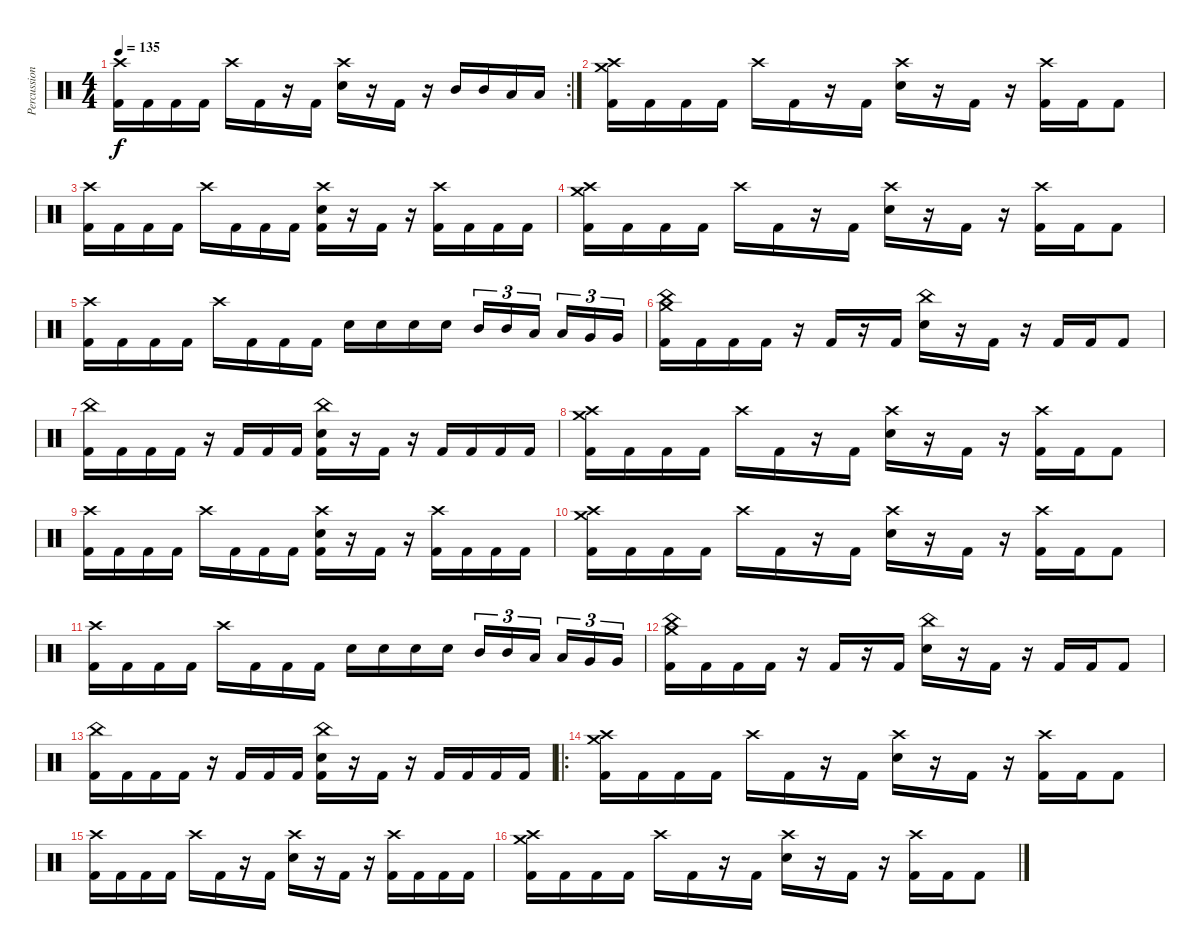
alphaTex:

\track ("Percussion" "Percussion") {instrument percussion}
\staff {score}
\articulation defaults
\rc 2
\ts (4 4)
\tempo 135
\clef neutral
\ks c
("Crash high (hit)" "Kick (hit) 2").16{dy f} "Kick (hit) 2".16 "Kick (hit) 2".16 "Kick (hit) 2".16 "Crash high (hit)".16 "Kick (hit) 2".16 r.16 "Kick (hit) 2".16 ("Crash high (hit)" "Snare (hit) 2").16 r.16 "Kick (hit) 2".16 r.16 "Mid Tom (hit)".16 "Mid Tom (hit)".16 "Low Tom (hit)".16 "Low Tom (hit)".16 |
("Crash high (hit)" "Crash medium (hit)" "Kick (hit) 2").16 "Kick (hit) 2".16 "Kick (hit) 2".16 "Kick (hit) 2".16 "Crash high (hit)".16 "Kick (hit) 2".16 r.16 "Kick (hit) 2".16 ("Crash high (hit)" "Snare (hit) 2").16 r.16 "Kick (hit) 2".16 r.16 ("Crash high (hit)" "Kick (hit) 2").16 "Kick (hit) 2".16 "Kick (hit) 2".8 |
("Crash high (hit)" "Kick (hit) 2").16 "Kick (hit) 2".16 "Kick (hit) 2".16 "Kick (hit) 2".16 "Crash high (hit)".16 "Kick (hit) 2".16 "Kick (hit) 2".16 "Kick (hit) 2".16 ("Crash high (hit)" "Snare (hit) 2" "Kick (hit) 2").16 r.16 "Kick (hit) 2".16 r.16 ("Crash high (hit)" "Kick (hit) 2").16 "Kick (hit) 2".16 "Kick (hit) 2".16 "Kick (hit) 2".16 |
("Crash high (hit)" "Crash medium (hit)" "Kick (hit) 2").16 "Kick (hit) 2".16 "Kick (hit) 2".16 "Kick (hit) 2".16 "Crash high (hit)".16 "Kick (hit) 2".16 r.16 "Kick (hit) 2".16 ("Crash high (hit)" "Snare (hit) 2").16 r.16 "Kick (hit) 2".16 r.16 ("Crash high (hit)" "Kick (hit) 2").16 "Kick (hit) 2".16 "Kick (hit) 2".8 |
("Crash high (hit)" "Kick (hit) 2").16 "Kick (hit) 2".16 "Kick (hit) 2".16 "Kick (hit) 2".16 "Crash high (hit)".16 "Kick (hit) 2".16 "Kick (hit) 2".16 "Kick (hit) 2".16 "Snare (hit) 2".16 "Snare (hit) 2".16 "Snare (hit) 2".16 "Snare (hit) 2".16 "Mid Tom (hit)".16{tu (3 2)} "Mid Tom (hit)".16{tu (3 2)} "Low Tom (hit)".16{tu (3 2) beam splitsecondary} "Low Tom (hit)".16{tu (3 2)} "Very Low Tom (hit)".16{tu (3 2)} "Very Low Tom (hit)".16{tu (3 2)} |
("China (hit)" "Crash medium (hit)" "Kick (hit) 2").16 "Kick (hit) 2".16 "Kick (hit) 2".16 "Kick (hit) 2".16 r.16 "Kick (hit) 2".16 r.16 "Kick (hit) 2".16 ("China (hit)" "Snare (hit) 2").16 r.16 "Kick (hit) 2".16 r.16 "Kick (hit) 2".16 "Kick (hit) 2".16 "Kick (hit) 2".8 |
("China (hit)" "Kick (hit) 2").16 "Kick (hit) 2".16 "Kick (hit) 2".16 "Kick (hit) 2".16 r.16 "Kick (hit) 2".16 "Kick (hit) 2".16 "Kick (hit) 2".16 ("China (hit)" "Snare (hit) 2" "Kick (hit) 2").16 r.16 "Kick (hit) 2".16 r.16 "Kick (hit) 2".16 "Kick (hit) 2".16 "Kick (hit) 2".16 "Kick (hit) 2".16 |
("Crash high (hit)" "Crash medium (hit)" "Kick (hit) 2").16 "Kick (hit) 2".16 "Kick (hit) 2".16 "Kick (hit) 2".16 "Crash high (hit)".16 "Kick (hit) 2".16 r.16 "Kick (hit) 2".16 ("Crash high (hit)" "Snare (hit) 2").16 r.16 "Kick (hit) 2".16 r.16 ("Crash high (hit)" "Kick (hit) 2").16 "Kick (hit) 2".16 "Kick (hit) 2".8 |
("Crash high (hit)" "Kick (hit) 2").16 "Kick (hit) 2".16 "Kick (hit) 2".16 "Kick (hit) 2".16 "Crash high (hit)".16 "Kick (hit) 2".16 "Kick (hit) 2".16 "Kick (hit) 2".16 ("Crash high (hit)" "Snare (hit) 2" "Kick (hit) 2").16 r.16 "Kick (hit) 2".16 r.16 ("Crash high (hit)" "Kick (hit) 2").16 "Kick (hit) 2".16 "Kick (hit) 2".16 "Kick (hit) 2".16 |
("Crash high (hit)" "Crash medium (hit)" "Kick (hit) 2").16 "Kick (hit) 2".16 "Kick (hit) 2".16 "Kick (hit) 2".16 "Crash high (hit)".16 "Kick (hit) 2".16 r.16 "Kick (hit) 2".16 ("Crash high (hit)" "Snare (hit) 2").16 r.16 "Kick (hit) 2".16 r.16 ("Crash high (hit)" "Kick (hit) 2").16 "Kick (hit) 2".16 "Kick (hit) 2".8 |
("Crash high (hit)" "Kick (hit) 2").16 "Kick (hit) 2".16 "Kick (hit) 2".16 "Kick (hit) 2".16 "Crash high (hit)".16 "Kick (hit) 2".16 "Kick (hit) 2".16 "Kick (hit) 2".16 "Snare (hit) 2".16 "Snare (hit) 2".16 "Snare (hit) 2".16 "Snare (hit) 2".16 "Mid Tom (hit)".16{tu (3 2)} "Mid Tom (hit)".16{tu (3 2)} "Low Tom (hit)".16{tu (3 2) beam splitsecondary} "Low Tom (hit)".16{tu (3 2)} "Very Low Tom (hit)".16{tu (3 2)} "Very Low Tom (hit)".16{tu (3 2)} |
("China (hit)" "Crash medium (hit)" "Kick (hit) 2").16 "Kick (hit) 2".16 "Kick (hit) 2".16 "Kick (hit) 2".16 r.16 "Kick (hit) 2".16 r.16 "Kick (hit) 2".16 ("China (hit)" "Snare (hit) 2").16 r.16 "Kick (hit) 2".16 r.16 "Kick (hit) 2".16 "Kick (hit) 2".16 "Kick (hit) 2".8 |
("China (hit)" "Kick (hit) 2").16 "Kick (hit) 2".16 "Kick (hit) 2".16 "Kick (hit) 2".16 r.16 "Kick (hit) 2".16 "Kick (hit) 2".16 "Kick (hit) 2".16 ("China (hit)" "Snare (hit) 2" "Kick (hit) 2").16 r.16 "Kick (hit) 2".16 r.16 "Kick (hit) 2".16 "Kick (hit) 2".16 "Kick (hit) 2".16 "Kick (hit) 2".16 |
\ro
("Crash high (hit)" "Crash medium (hit)" "Kick (hit) 2").16 "Kick (hit) 2".16 "Kick (hit) 2".16 "Kick (hit) 2".16 "Crash high (hit)".16 "Kick (hit) 2".16 r.16 "Kick (hit) 2".16 ("Crash high (hit)" "Snare (hit) 2").16 r.16 "Kick (hit) 2".16 r.16 ("Crash high (hit)" "Kick (hit) 2").16 "Kick (hit) 2".16 "Kick (hit) 2".8 |
("Crash high (hit)" "Kick (hit) 2").16 "Kick (hit) 2".16 "Kick (hit) 2".16 "Kick (hit) 2".16 "Crash high (hit)".16 "Kick (hit) 2".16 r.16 "Kick (hit) 2".16 ("Crash high (hit)" "Snare (hit) 2").16 r.16 "Kick (hit) 2".16 r.16 ("Crash high (hit)" "Kick (hit) 2").16 "Kick (hit) 2".16 "Kick (hit) 2".16 "Kick (hit) 2".16 |
("Crash high (hit)" "Crash medium (hit)" "Kick (hit) 2").16 "Kick (hit) 2".16 "Kick (hit) 2".16 "Kick (hit) 2".16 "Crash high (hit)".16 "Kick (hit) 2".16 r.16 "Kick (hit) 2".16 ("Crash high (hit)" "Snare (hit) 2").16 r.16 "Kick (hit) 2".16 r.16 ("Crash high (hit)" "Kick (hit) 2").16 "Kick (hit) 2".16 "Kick (hit) 2".8
